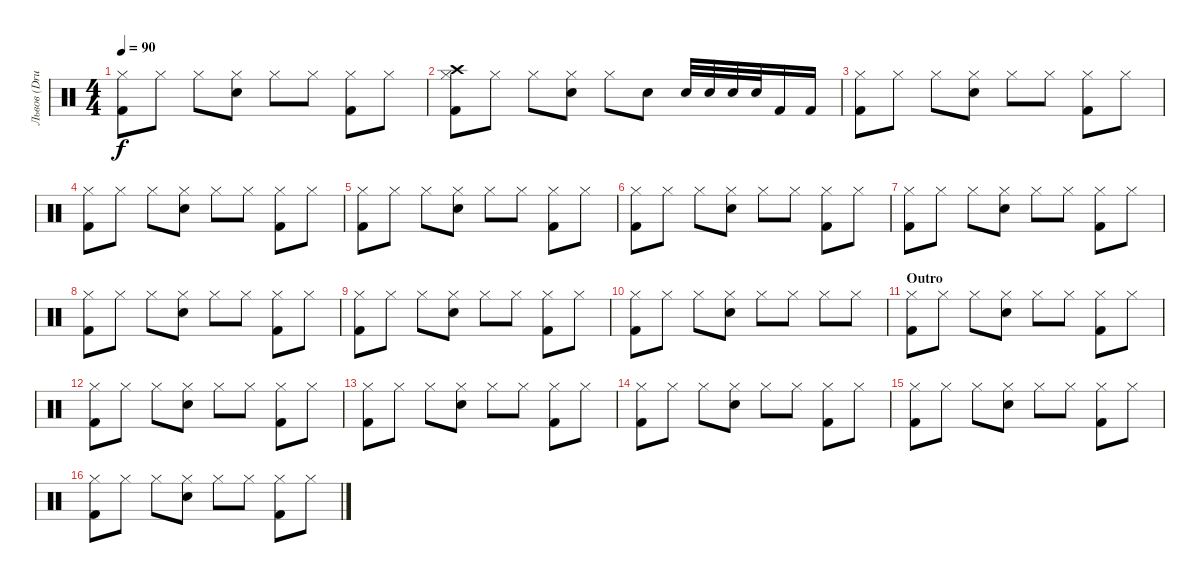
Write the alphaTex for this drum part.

\track ("Львов (Drums)" "Львов (Dru") {instrument percussion}
\staff {score}
\articulation defaults
\ts (4 4)
\tempo 90
\clef neutral
\ks c
("Kick (hit) 2" "Hi-Hat (closed)").8{dy f} "Hi-Hat (closed)".8 "Hi-Hat (closed)".8 ("Electric Snare (hit)" "Hi-Hat (closed)").8 "Hi-Hat (closed)".8 "Hi-Hat (closed)".8 ("Kick (hit) 2" "Hi-Hat (closed)").8 "Hi-Hat (closed)".8 |
("Kick (hit) 2" "Crash high (hit)" "Hi-Hat (closed)").8 "Hi-Hat (closed)".8 "Hi-Hat (closed)".8 ("Electric Snare (hit)" "Hi-Hat (closed)").8 "Hi-Hat (closed)".8 "Electric Snare (hit)".8 "Electric Snare (hit)".32 "Electric Snare (hit)".32 "Electric Snare (hit)".32 "Electric Snare (hit)".32 "Kick (hit) 2".16 "Kick (hit) 2".16 |
("Kick (hit) 2" "Hi-Hat (closed)").8 "Hi-Hat (closed)".8 "Hi-Hat (closed)".8 ("Electric Snare (hit)" "Hi-Hat (closed)").8 "Hi-Hat (closed)".8 "Hi-Hat (closed)".8 ("Kick (hit) 2" "Hi-Hat (closed)").8 "Hi-Hat (closed)".8 |
("Kick (hit) 2" "Hi-Hat (closed)").8 "Hi-Hat (closed)".8 "Hi-Hat (closed)".8 ("Electric Snare (hit)" "Hi-Hat (closed)").8 "Hi-Hat (closed)".8 "Hi-Hat (closed)".8 ("Kick (hit) 2" "Hi-Hat (closed)").8 "Hi-Hat (closed)".8 |
("Kick (hit) 2" "Hi-Hat (closed)").8 "Hi-Hat (closed)".8 "Hi-Hat (closed)".8 ("Electric Snare (hit)" "Hi-Hat (closed)").8 "Hi-Hat (closed)".8 "Hi-Hat (closed)".8 ("Kick (hit) 2" "Hi-Hat (closed)").8 "Hi-Hat (closed)".8 |
("Kick (hit) 2" "Hi-Hat (closed)").8 "Hi-Hat (closed)".8 "Hi-Hat (closed)".8 ("Electric Snare (hit)" "Hi-Hat (closed)").8 "Hi-Hat (closed)".8 "Hi-Hat (closed)".8 ("Kick (hit) 2" "Hi-Hat (closed)").8 "Hi-Hat (closed)".8 |
("Kick (hit) 2" "Hi-Hat (closed)").8 "Hi-Hat (closed)".8 "Hi-Hat (closed)".8 ("Electric Snare (hit)" "Hi-Hat (closed)").8 "Hi-Hat (closed)".8 "Hi-Hat (closed)".8 ("Kick (hit) 2" "Hi-Hat (closed)").8 "Hi-Hat (closed)".8 |
("Kick (hit) 2" "Hi-Hat (closed)").8 "Hi-Hat (closed)".8 "Hi-Hat (closed)".8 ("Electric Snare (hit)" "Hi-Hat (closed)").8 "Hi-Hat (closed)".8 "Hi-Hat (closed)".8 ("Kick (hit) 2" "Hi-Hat (closed)").8 "Hi-Hat (closed)".8 |
("Kick (hit) 2" "Hi-Hat (closed)").8 "Hi-Hat (closed)".8 "Hi-Hat (closed)".8 ("Electric Snare (hit)" "Hi-Hat (closed)").8 "Hi-Hat (closed)".8 "Hi-Hat (closed)".8 ("Kick (hit) 2" "Hi-Hat (closed)").8 "Hi-Hat (closed)".8 |
("Kick (hit) 2" "Hi-Hat (closed)").8 "Hi-Hat (closed)".8 "Hi-Hat (closed)".8 ("Electric Snare (hit)" "Hi-Hat (closed)").8 "Hi-Hat (closed)".8 "Hi-Hat (closed)".8 "Hi-Hat (closed)".8 "Hi-Hat (closed)".8 |
\section ("" "Outro")
("Kick (hit) 2" "Hi-Hat (closed)").8 "Hi-Hat (closed)".8 "Hi-Hat (closed)".8 ("Electric Snare (hit)" "Hi-Hat (closed)").8 "Hi-Hat (closed)".8 "Hi-Hat (closed)".8 ("Kick (hit) 2" "Hi-Hat (closed)").8 "Hi-Hat (closed)".8 |
("Kick (hit) 2" "Hi-Hat (closed)").8 "Hi-Hat (closed)".8 "Hi-Hat (closed)".8 ("Electric Snare (hit)" "Hi-Hat (closed)").8 "Hi-Hat (closed)".8 "Hi-Hat (closed)".8 ("Kick (hit) 2" "Hi-Hat (closed)").8 "Hi-Hat (closed)".8 |
("Kick (hit) 2" "Hi-Hat (closed)").8 "Hi-Hat (closed)".8 "Hi-Hat (closed)".8 ("Electric Snare (hit)" "Hi-Hat (closed)").8 "Hi-Hat (closed)".8 "Hi-Hat (closed)".8 ("Kick (hit) 2" "Hi-Hat (closed)").8 "Hi-Hat (closed)".8 |
("Kick (hit) 2" "Hi-Hat (closed)").8 "Hi-Hat (closed)".8 "Hi-Hat (closed)".8 ("Electric Snare (hit)" "Hi-Hat (closed)").8 "Hi-Hat (closed)".8 "Hi-Hat (closed)".8 ("Kick (hit) 2" "Hi-Hat (closed)").8 "Hi-Hat (closed)".8 |
("Kick (hit) 2" "Hi-Hat (closed)").8{volume 10} "Hi-Hat (closed)".8 "Hi-Hat (closed)".8 ("Electric Snare (hit)" "Hi-Hat (closed)").8 "Hi-Hat (closed)".8 "Hi-Hat (closed)".8 ("Kick (hit) 2" "Hi-Hat (closed)").8 "Hi-Hat (closed)".8 |
("Kick (hit) 2" "Hi-Hat (closed)").8{volume 7} "Hi-Hat (closed)".8 "Hi-Hat (closed)".8 ("Electric Snare (hit)" "Hi-Hat (closed)").8 "Hi-Hat (closed)".8 "Hi-Hat (closed)".8 ("Kick (hit) 2" "Hi-Hat (closed)").8 "Hi-Hat (closed)".8
